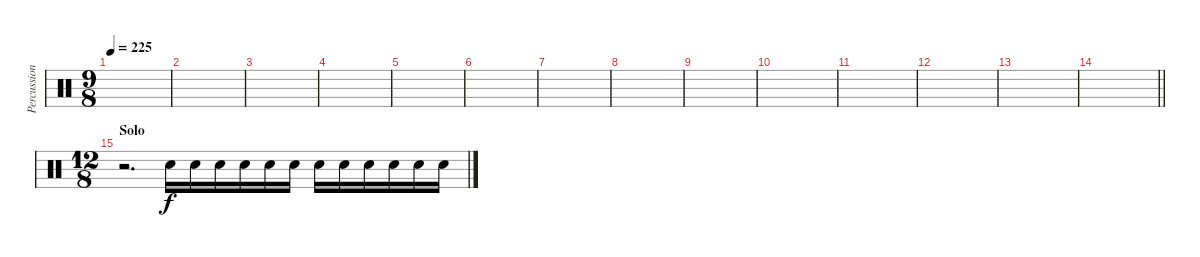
\track ("Percussions" "Percussion") {instrument percussion}
\staff {score}
\articulation defaults
\ts (9 8)
\tempo 225
\clef neutral
\ks c
|
|
|
|
|
|
|
|
|
|
|
|
|
\barLineRight lightlight
|
\ts (12 8)
\section ("" "Solo")
r.2{d} "Snare (hit) 2".16 "Snare (hit) 2".16 "Snare (hit) 2".16 "Snare (hit) 2".16 "Snare (hit) 2".16 "Snare (hit) 2".16 "Snare (hit) 2".16 "Snare (hit) 2".16 "Snare (hit) 2".16 "Snare (hit) 2".16 "Snare (hit) 2".16 "Snare (hit) 2".16
